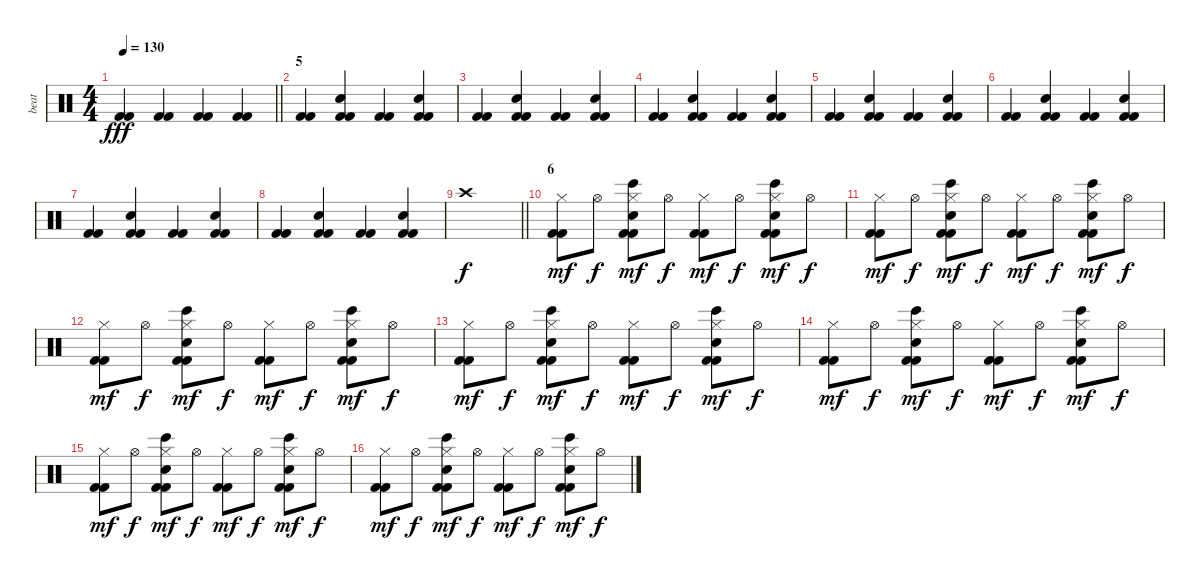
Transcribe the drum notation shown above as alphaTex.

\track ("beat" "beat") {instrument percussion}
\staff {score}
\articulation defaults
\ts (4 4)
\tempo 130
\clef neutral
\barLineRight lightlight
\ks c
("Kick (hit) 2" "Kick (hit) 2").4{dy fff} ("Kick (hit) 2" "Kick (hit) 2").4 ("Kick (hit) 2" "Kick (hit) 2").4 ("Kick (hit) 2" "Kick (hit) 2").4 |
\section ("" "5")
("Kick (hit) 2" "Kick (hit) 2").4 ("Kick (hit) 2" "Kick (hit) 2" "Electric Snare (hit)").4 ("Kick (hit) 2" "Kick (hit) 2").4 ("Kick (hit) 2" "Kick (hit) 2" "Electric Snare (hit)").4 |
("Kick (hit) 2" "Kick (hit) 2").4 ("Kick (hit) 2" "Kick (hit) 2" "Electric Snare (hit)").4 ("Kick (hit) 2" "Kick (hit) 2").4 ("Kick (hit) 2" "Kick (hit) 2" "Electric Snare (hit)").4 |
("Kick (hit) 2" "Kick (hit) 2").4 ("Kick (hit) 2" "Kick (hit) 2" "Electric Snare (hit)").4 ("Kick (hit) 2" "Kick (hit) 2").4 ("Kick (hit) 2" "Kick (hit) 2" "Electric Snare (hit)").4 |
("Kick (hit) 2" "Kick (hit) 2").4 ("Kick (hit) 2" "Kick (hit) 2" "Electric Snare (hit)").4 ("Kick (hit) 2" "Kick (hit) 2").4 ("Kick (hit) 2" "Kick (hit) 2" "Electric Snare (hit)").4 |
("Kick (hit) 2" "Kick (hit) 2").4 ("Kick (hit) 2" "Kick (hit) 2" "Electric Snare (hit)").4 ("Kick (hit) 2" "Kick (hit) 2").4 ("Kick (hit) 2" "Kick (hit) 2" "Electric Snare (hit)").4 |
("Kick (hit) 2" "Kick (hit) 2").4 ("Kick (hit) 2" "Kick (hit) 2" "Electric Snare (hit)").4 ("Kick (hit) 2" "Kick (hit) 2").4 ("Kick (hit) 2" "Kick (hit) 2" "Electric Snare (hit)").4 |
("Kick (hit) 2" "Kick (hit) 2").4 ("Kick (hit) 2" "Kick (hit) 2" "Electric Snare (hit)").4 ("Kick (hit) 2" "Kick (hit) 2").4 ("Kick (hit) 2" "Kick (hit) 2" "Electric Snare (hit)").4 |
\barLineRight lightlight "Crash high (hit)".1{dy f}
|
\section ("" "6")
("Kick (hit) 2" "Kick (hit) 2" "Hi-Hat (closed)").8{dy mf} "Hi-Hat (open)".8{dy f} ("Kick (hit) 2" "Kick (hit) 2" "Bongo High (hit)" "Hand Clap (hit)" "Hi-Hat (closed)").8{dy mf} "Hi-Hat (open)".8{dy f} ("Kick (hit) 2" "Kick (hit) 2" "Hi-Hat (closed)").8{dy mf} "Hi-Hat (open)".8{dy f} ("Kick (hit) 2" "Kick (hit) 2" "Bongo High (hit)" "Hand Clap (hit)" "Hi-Hat (closed)").8{dy mf} "Hi-Hat (open)".8{dy f} |
("Kick (hit) 2" "Kick (hit) 2" "Hi-Hat (closed)").8{dy mf} "Hi-Hat (open)".8{dy f} ("Kick (hit) 2" "Kick (hit) 2" "Bongo High (hit)" "Hand Clap (hit)" "Hi-Hat (closed)").8{dy mf} "Hi-Hat (open)".8{dy f} ("Kick (hit) 2" "Kick (hit) 2" "Hi-Hat (closed)").8{dy mf} "Hi-Hat (open)".8{dy f} ("Kick (hit) 2" "Kick (hit) 2" "Bongo High (hit)" "Hand Clap (hit)" "Hi-Hat (closed)").8{dy mf} "Hi-Hat (open)".8{dy f} |
("Kick (hit) 2" "Kick (hit) 2" "Hi-Hat (closed)").8{dy mf} "Hi-Hat (open)".8{dy f} ("Kick (hit) 2" "Kick (hit) 2" "Bongo High (hit)" "Hand Clap (hit)" "Hi-Hat (closed)").8{dy mf} "Hi-Hat (open)".8{dy f} ("Kick (hit) 2" "Kick (hit) 2" "Hi-Hat (closed)").8{dy mf} "Hi-Hat (open)".8{dy f} ("Kick (hit) 2" "Kick (hit) 2" "Bongo High (hit)" "Hand Clap (hit)" "Hi-Hat (closed)").8{dy mf} "Hi-Hat (open)".8{dy f} |
("Kick (hit) 2" "Kick (hit) 2" "Hi-Hat (closed)").8{dy mf} "Hi-Hat (open)".8{dy f} ("Kick (hit) 2" "Kick (hit) 2" "Bongo High (hit)" "Hand Clap (hit)" "Hi-Hat (closed)").8{dy mf} "Hi-Hat (open)".8{dy f} ("Kick (hit) 2" "Kick (hit) 2" "Hi-Hat (closed)").8{dy mf} "Hi-Hat (open)".8{dy f} ("Kick (hit) 2" "Kick (hit) 2" "Bongo High (hit)" "Hand Clap (hit)" "Hi-Hat (closed)").8{dy mf} "Hi-Hat (open)".8{dy f} |
("Kick (hit) 2" "Kick (hit) 2" "Hi-Hat (closed)").8{dy mf} "Hi-Hat (open)".8{dy f} ("Kick (hit) 2" "Kick (hit) 2" "Bongo High (hit)" "Hand Clap (hit)" "Hi-Hat (closed)").8{dy mf} "Hi-Hat (open)".8{dy f} ("Kick (hit) 2" "Kick (hit) 2" "Hi-Hat (closed)").8{dy mf} "Hi-Hat (open)".8{dy f} ("Kick (hit) 2" "Kick (hit) 2" "Bongo High (hit)" "Hand Clap (hit)" "Hi-Hat (closed)").8{dy mf} "Hi-Hat (open)".8{dy f} |
("Kick (hit) 2" "Kick (hit) 2" "Hi-Hat (closed)").8{dy mf} "Hi-Hat (open)".8{dy f} ("Kick (hit) 2" "Kick (hit) 2" "Bongo High (hit)" "Hand Clap (hit)" "Hi-Hat (closed)").8{dy mf} "Hi-Hat (open)".8{dy f} ("Kick (hit) 2" "Kick (hit) 2" "Hi-Hat (closed)").8{dy mf} "Hi-Hat (open)".8{dy f} ("Kick (hit) 2" "Kick (hit) 2" "Bongo High (hit)" "Hand Clap (hit)" "Hi-Hat (closed)").8{dy mf} "Hi-Hat (open)".8{dy f} |
("Kick (hit) 2" "Kick (hit) 2" "Hi-Hat (closed)").8{dy mf} "Hi-Hat (open)".8{dy f} ("Kick (hit) 2" "Kick (hit) 2" "Bongo High (hit)" "Hand Clap (hit)" "Hi-Hat (closed)").8{dy mf} "Hi-Hat (open)".8{dy f} ("Kick (hit) 2" "Kick (hit) 2" "Hi-Hat (closed)").8{dy mf} "Hi-Hat (open)".8{dy f} ("Kick (hit) 2" "Kick (hit) 2" "Bongo High (hit)" "Hand Clap (hit)" "Hi-Hat (closed)").8{dy mf} "Hi-Hat (open)".8{dy f}
